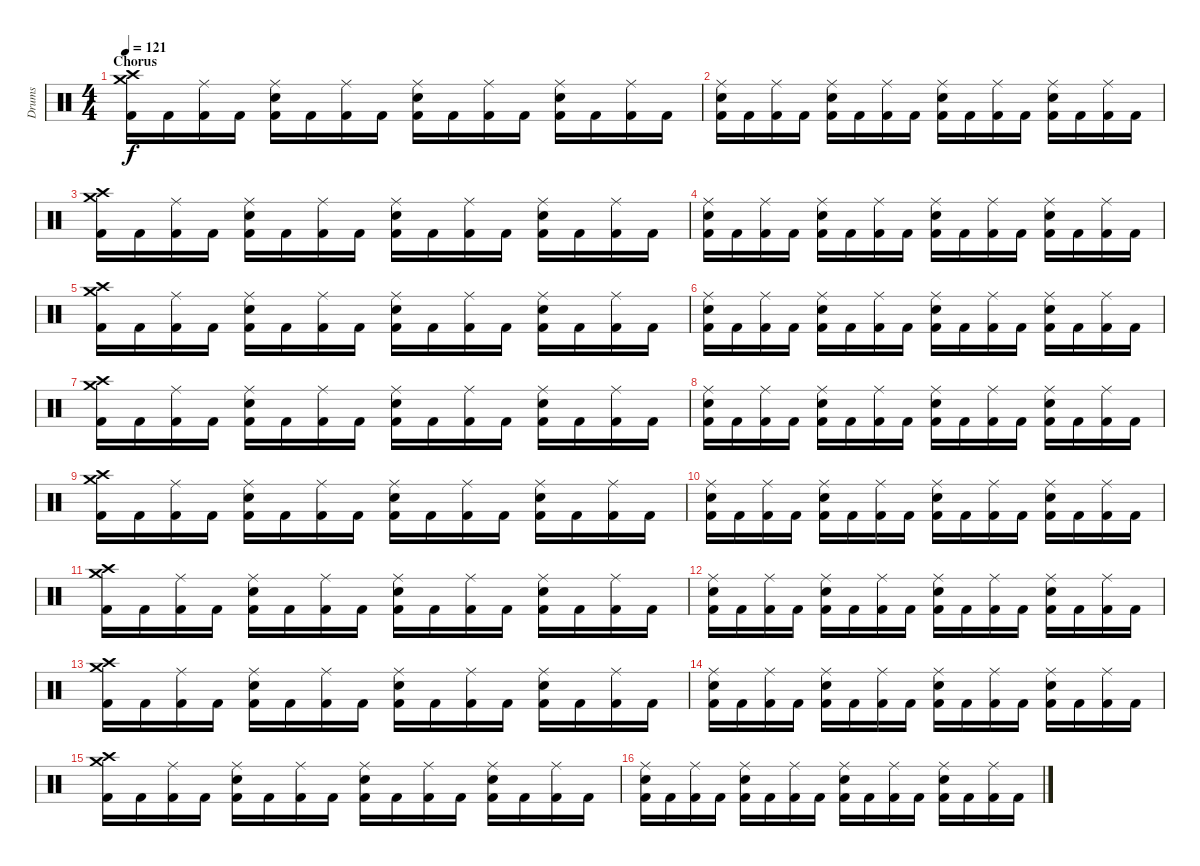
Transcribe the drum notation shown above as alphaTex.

\track ("Drums" "Drums") {instrument percussion}
\staff {score}
\articulation defaults
\ts (4 4)
\section ("" "Chorus")
\tempo 121
\clef neutral
\ks c
("Crash high (hit)" "Crash medium (hit)" "Kick (hit) 2").16{dy f} "Kick (hit) 2".16 ("Ride (middle)" "Kick (hit) 2").16 "Kick (hit) 2".16 ("Ride (middle)" "Snare (hit) 2" "Kick (hit) 2").16 "Kick (hit) 2".16 ("Ride (middle)" "Kick (hit) 2").16 "Kick (hit) 2".16 ("Ride (middle)" "Snare (hit) 2" "Kick (hit) 2").16 "Kick (hit) 2".16 ("Ride (middle)" "Kick (hit) 2").16 "Kick (hit) 2".16 ("Ride (middle)" "Snare (hit) 2" "Kick (hit) 2").16 "Kick (hit) 2".16 ("Ride (middle)" "Kick (hit) 2").16 "Kick (hit) 2".16 |
("Ride (middle)" "Snare (hit) 2" "Kick (hit) 2").16 "Kick (hit) 2".16 ("Ride (middle)" "Kick (hit) 2").16 "Kick (hit) 2".16 ("Ride (middle)" "Snare (hit) 2" "Kick (hit) 2").16 "Kick (hit) 2".16 ("Ride (middle)" "Kick (hit) 2").16 "Kick (hit) 2".16 ("Ride (middle)" "Snare (hit) 2" "Kick (hit) 2").16 "Kick (hit) 2".16 ("Ride (middle)" "Kick (hit) 2").16 "Kick (hit) 2".16 ("Ride (middle)" "Snare (hit) 2" "Kick (hit) 2").16 "Kick (hit) 2".16 ("Ride (middle)" "Kick (hit) 2").16 "Kick (hit) 2".16 |
("Crash high (hit)" "Crash medium (hit)" "Kick (hit) 2").16 "Kick (hit) 2".16 ("Ride (middle)" "Kick (hit) 2").16 "Kick (hit) 2".16 ("Ride (middle)" "Snare (hit) 2" "Kick (hit) 2").16 "Kick (hit) 2".16 ("Ride (middle)" "Kick (hit) 2").16 "Kick (hit) 2".16 ("Ride (middle)" "Snare (hit) 2" "Kick (hit) 2").16 "Kick (hit) 2".16 ("Ride (middle)" "Kick (hit) 2").16 "Kick (hit) 2".16 ("Ride (middle)" "Snare (hit) 2" "Kick (hit) 2").16 "Kick (hit) 2".16 ("Ride (middle)" "Kick (hit) 2").16 "Kick (hit) 2".16 |
("Ride (middle)" "Snare (hit) 2" "Kick (hit) 2").16 "Kick (hit) 2".16 ("Ride (middle)" "Kick (hit) 2").16 "Kick (hit) 2".16 ("Ride (middle)" "Snare (hit) 2" "Kick (hit) 2").16 "Kick (hit) 2".16 ("Ride (middle)" "Kick (hit) 2").16 "Kick (hit) 2".16 ("Ride (middle)" "Snare (hit) 2" "Kick (hit) 2").16 "Kick (hit) 2".16 ("Ride (middle)" "Kick (hit) 2").16 "Kick (hit) 2".16 ("Ride (middle)" "Snare (hit) 2" "Kick (hit) 2").16 "Kick (hit) 2".16 ("Ride (middle)" "Kick (hit) 2").16 "Kick (hit) 2".16 |
("Crash high (hit)" "Crash medium (hit)" "Kick (hit) 2").16 "Kick (hit) 2".16 ("Ride (middle)" "Kick (hit) 2").16 "Kick (hit) 2".16 ("Ride (middle)" "Snare (hit) 2" "Kick (hit) 2").16 "Kick (hit) 2".16 ("Ride (middle)" "Kick (hit) 2").16 "Kick (hit) 2".16 ("Ride (middle)" "Snare (hit) 2" "Kick (hit) 2").16 "Kick (hit) 2".16 ("Ride (middle)" "Kick (hit) 2").16 "Kick (hit) 2".16 ("Ride (middle)" "Snare (hit) 2" "Kick (hit) 2").16 "Kick (hit) 2".16 ("Ride (middle)" "Kick (hit) 2").16 "Kick (hit) 2".16 |
("Ride (middle)" "Snare (hit) 2" "Kick (hit) 2").16 "Kick (hit) 2".16 ("Ride (middle)" "Kick (hit) 2").16 "Kick (hit) 2".16 ("Ride (middle)" "Snare (hit) 2" "Kick (hit) 2").16 "Kick (hit) 2".16 ("Ride (middle)" "Kick (hit) 2").16 "Kick (hit) 2".16 ("Ride (middle)" "Snare (hit) 2" "Kick (hit) 2").16 "Kick (hit) 2".16 ("Ride (middle)" "Kick (hit) 2").16 "Kick (hit) 2".16 ("Ride (middle)" "Snare (hit) 2" "Kick (hit) 2").16 "Kick (hit) 2".16 ("Ride (middle)" "Kick (hit) 2").16 "Kick (hit) 2".16 |
("Crash high (hit)" "Crash medium (hit)" "Kick (hit) 2").16 "Kick (hit) 2".16 ("Ride (middle)" "Kick (hit) 2").16 "Kick (hit) 2".16 ("Ride (middle)" "Snare (hit) 2" "Kick (hit) 2").16 "Kick (hit) 2".16 ("Ride (middle)" "Kick (hit) 2").16 "Kick (hit) 2".16 ("Ride (middle)" "Snare (hit) 2" "Kick (hit) 2").16 "Kick (hit) 2".16 ("Ride (middle)" "Kick (hit) 2").16 "Kick (hit) 2".16 ("Ride (middle)" "Snare (hit) 2" "Kick (hit) 2").16 "Kick (hit) 2".16 ("Ride (middle)" "Kick (hit) 2").16 "Kick (hit) 2".16 |
("Ride (middle)" "Snare (hit) 2" "Kick (hit) 2").16 "Kick (hit) 2".16 ("Ride (middle)" "Kick (hit) 2").16 "Kick (hit) 2".16 ("Ride (middle)" "Snare (hit) 2" "Kick (hit) 2").16 "Kick (hit) 2".16 ("Ride (middle)" "Kick (hit) 2").16 "Kick (hit) 2".16 ("Ride (middle)" "Snare (hit) 2" "Kick (hit) 2").16 "Kick (hit) 2".16 ("Ride (middle)" "Kick (hit) 2").16 "Kick (hit) 2".16 ("Ride (middle)" "Snare (hit) 2" "Kick (hit) 2").16 "Kick (hit) 2".16 ("Ride (middle)" "Kick (hit) 2").16 "Kick (hit) 2".16 |
("Crash high (hit)" "Crash medium (hit)" "Kick (hit) 2").16 "Kick (hit) 2".16 ("Ride (middle)" "Kick (hit) 2").16 "Kick (hit) 2".16 ("Ride (middle)" "Snare (hit) 2" "Kick (hit) 2").16 "Kick (hit) 2".16 ("Ride (middle)" "Kick (hit) 2").16 "Kick (hit) 2".16 ("Ride (middle)" "Snare (hit) 2" "Kick (hit) 2").16 "Kick (hit) 2".16 ("Ride (middle)" "Kick (hit) 2").16 "Kick (hit) 2".16 ("Ride (middle)" "Snare (hit) 2" "Kick (hit) 2").16 "Kick (hit) 2".16 ("Ride (middle)" "Kick (hit) 2").16 "Kick (hit) 2".16 |
("Ride (middle)" "Snare (hit) 2" "Kick (hit) 2").16 "Kick (hit) 2".16 ("Ride (middle)" "Kick (hit) 2").16 "Kick (hit) 2".16 ("Ride (middle)" "Snare (hit) 2" "Kick (hit) 2").16 "Kick (hit) 2".16 ("Ride (middle)" "Kick (hit) 2").16 "Kick (hit) 2".16 ("Ride (middle)" "Snare (hit) 2" "Kick (hit) 2").16 "Kick (hit) 2".16 ("Ride (middle)" "Kick (hit) 2").16 "Kick (hit) 2".16 ("Ride (middle)" "Snare (hit) 2" "Kick (hit) 2").16 "Kick (hit) 2".16 ("Ride (middle)" "Kick (hit) 2").16 "Kick (hit) 2".16 |
("Crash high (hit)" "Crash medium (hit)" "Kick (hit) 2").16 "Kick (hit) 2".16 ("Ride (middle)" "Kick (hit) 2").16 "Kick (hit) 2".16 ("Ride (middle)" "Snare (hit) 2" "Kick (hit) 2").16 "Kick (hit) 2".16 ("Ride (middle)" "Kick (hit) 2").16 "Kick (hit) 2".16 ("Ride (middle)" "Snare (hit) 2" "Kick (hit) 2").16 "Kick (hit) 2".16 ("Ride (middle)" "Kick (hit) 2").16 "Kick (hit) 2".16 ("Ride (middle)" "Snare (hit) 2" "Kick (hit) 2").16 "Kick (hit) 2".16 ("Ride (middle)" "Kick (hit) 2").16 "Kick (hit) 2".16 |
("Ride (middle)" "Snare (hit) 2" "Kick (hit) 2").16 "Kick (hit) 2".16 ("Ride (middle)" "Kick (hit) 2").16 "Kick (hit) 2".16 ("Ride (middle)" "Snare (hit) 2" "Kick (hit) 2").16 "Kick (hit) 2".16 ("Ride (middle)" "Kick (hit) 2").16 "Kick (hit) 2".16 ("Ride (middle)" "Snare (hit) 2" "Kick (hit) 2").16 "Kick (hit) 2".16 ("Ride (middle)" "Kick (hit) 2").16 "Kick (hit) 2".16 ("Ride (middle)" "Snare (hit) 2" "Kick (hit) 2").16 "Kick (hit) 2".16 ("Ride (middle)" "Kick (hit) 2").16 "Kick (hit) 2".16 |
("Crash high (hit)" "Crash medium (hit)" "Kick (hit) 2").16 "Kick (hit) 2".16 ("Ride (middle)" "Kick (hit) 2").16 "Kick (hit) 2".16 ("Ride (middle)" "Snare (hit) 2" "Kick (hit) 2").16 "Kick (hit) 2".16 ("Ride (middle)" "Kick (hit) 2").16 "Kick (hit) 2".16 ("Ride (middle)" "Snare (hit) 2" "Kick (hit) 2").16 "Kick (hit) 2".16 ("Ride (middle)" "Kick (hit) 2").16 "Kick (hit) 2".16 ("Ride (middle)" "Snare (hit) 2" "Kick (hit) 2").16 "Kick (hit) 2".16 ("Ride (middle)" "Kick (hit) 2").16 "Kick (hit) 2".16 |
("Ride (middle)" "Snare (hit) 2" "Kick (hit) 2").16 "Kick (hit) 2".16 ("Ride (middle)" "Kick (hit) 2").16 "Kick (hit) 2".16 ("Ride (middle)" "Snare (hit) 2" "Kick (hit) 2").16 "Kick (hit) 2".16 ("Ride (middle)" "Kick (hit) 2").16 "Kick (hit) 2".16 ("Ride (middle)" "Snare (hit) 2" "Kick (hit) 2").16 "Kick (hit) 2".16 ("Ride (middle)" "Kick (hit) 2").16 "Kick (hit) 2".16 ("Ride (middle)" "Snare (hit) 2" "Kick (hit) 2").16 "Kick (hit) 2".16 ("Ride (middle)" "Kick (hit) 2").16 "Kick (hit) 2".16 |
("Crash high (hit)" "Crash medium (hit)" "Kick (hit) 2").16 "Kick (hit) 2".16 ("Ride (middle)" "Kick (hit) 2").16 "Kick (hit) 2".16 ("Ride (middle)" "Snare (hit) 2" "Kick (hit) 2").16 "Kick (hit) 2".16 ("Ride (middle)" "Kick (hit) 2").16 "Kick (hit) 2".16 ("Ride (middle)" "Snare (hit) 2" "Kick (hit) 2").16 "Kick (hit) 2".16 ("Ride (middle)" "Kick (hit) 2").16 "Kick (hit) 2".16 ("Ride (middle)" "Snare (hit) 2" "Kick (hit) 2").16 "Kick (hit) 2".16 ("Ride (middle)" "Kick (hit) 2").16 "Kick (hit) 2".16 |
("Ride (middle)" "Snare (hit) 2" "Kick (hit) 2").16 "Kick (hit) 2".16 ("Ride (middle)" "Kick (hit) 2").16 "Kick (hit) 2".16 ("Ride (middle)" "Snare (hit) 2" "Kick (hit) 2").16 "Kick (hit) 2".16 ("Ride (middle)" "Kick (hit) 2").16 "Kick (hit) 2".16 ("Ride (middle)" "Snare (hit) 2" "Kick (hit) 2").16 "Kick (hit) 2".16 ("Ride (middle)" "Kick (hit) 2").16 "Kick (hit) 2".16 ("Ride (middle)" "Snare (hit) 2" "Kick (hit) 2").16 "Kick (hit) 2".16 ("Ride (middle)" "Kick (hit) 2").16 "Kick (hit) 2".16
